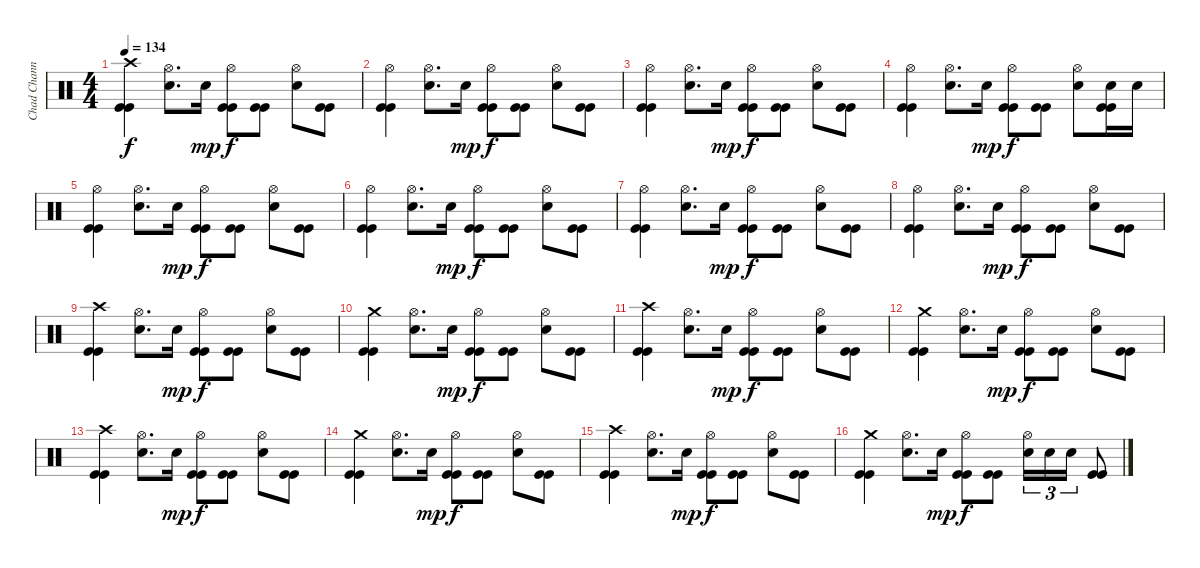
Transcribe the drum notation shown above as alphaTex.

\track ("Chad Channing" "Chad Chann") {instrument percussion}
\staff {score}
\articulation defaults
\ts (4 4)
\tempo 134
\clef neutral
\ks c
("Crash high (hit)" "Kick (hit)" "Kick (hit)").4{dy f} ("Hi-Hat (open)" "Electric Snare (hit)").8{d} "Electric Snare (hit)".16{dy mp} ("Hi-Hat (open)" "Kick (hit)" "Kick (hit)").8{dy f} ("Kick (hit)" "Kick (hit)").8 ("Hi-Hat (open)" "Electric Snare (hit)").8 ("Kick (hit)" "Kick (hit)").8 |
("Hi-Hat (open)" "Kick (hit)" "Kick (hit)").4 ("Hi-Hat (open)" "Electric Snare (hit)").8{d} "Electric Snare (hit)".16{dy mp} ("Hi-Hat (open)" "Kick (hit)" "Kick (hit)").8{dy f} ("Kick (hit)" "Kick (hit)").8 ("Hi-Hat (open)" "Electric Snare (hit)").8 ("Kick (hit)" "Kick (hit)").8 |
("Hi-Hat (open)" "Kick (hit)" "Kick (hit)").4 ("Hi-Hat (open)" "Electric Snare (hit)").8{d} "Electric Snare (hit)".16{dy mp} ("Hi-Hat (open)" "Kick (hit)" "Kick (hit)").8{dy f} ("Kick (hit)" "Kick (hit)").8 ("Hi-Hat (open)" "Electric Snare (hit)").8 ("Kick (hit)" "Kick (hit)").8 |
("Hi-Hat (open)" "Kick (hit)" "Kick (hit)").4 ("Hi-Hat (open)" "Electric Snare (hit)").8{d} "Electric Snare (hit)".16{dy mp} ("Hi-Hat (open)" "Kick (hit)" "Kick (hit)").8{dy f} ("Kick (hit)" "Kick (hit)").8 ("Hi-Hat (open)" "Electric Snare (hit)").8 ("Electric Snare (hit)" "Kick (hit)" "Kick (hit)").16 "Electric Snare (hit)".16 |
("Hi-Hat (open)" "Kick (hit)" "Kick (hit)").4 ("Hi-Hat (open)" "Electric Snare (hit)").8{d} "Electric Snare (hit)".16{dy mp} ("Hi-Hat (open)" "Kick (hit)" "Kick (hit)").8{dy f} ("Kick (hit)" "Kick (hit)").8 ("Hi-Hat (open)" "Electric Snare (hit)").8 ("Kick (hit)" "Kick (hit)").8 |
("Hi-Hat (open)" "Kick (hit)" "Kick (hit)").4 ("Hi-Hat (open)" "Electric Snare (hit)").8{d} "Electric Snare (hit)".16{dy mp} ("Hi-Hat (open)" "Kick (hit)" "Kick (hit)").8{dy f} ("Kick (hit)" "Kick (hit)").8 ("Hi-Hat (open)" "Electric Snare (hit)").8 ("Kick (hit)" "Kick (hit)").8 |
("Hi-Hat (open)" "Kick (hit)" "Kick (hit)").4 ("Hi-Hat (open)" "Electric Snare (hit)").8{d} "Electric Snare (hit)".16{dy mp} ("Hi-Hat (open)" "Kick (hit)" "Kick (hit)").8{dy f} ("Kick (hit)" "Kick (hit)").8 ("Hi-Hat (open)" "Electric Snare (hit)").8 ("Kick (hit)" "Kick (hit)").8 |
("Hi-Hat (open)" "Kick (hit)" "Kick (hit)").4 ("Hi-Hat (open)" "Electric Snare (hit)").8{d} "Electric Snare (hit)".16{dy mp} ("Hi-Hat (open)" "Kick (hit)" "Kick (hit)").8{dy f} ("Kick (hit)" "Kick (hit)").8 ("Hi-Hat (open)" "Electric Snare (hit)").8 ("Kick (hit)" "Kick (hit)").8 |
("Crash high (hit)" "Kick (hit)" "Kick (hit)").4 ("Hi-Hat (open)" "Electric Snare (hit)").8{d} "Electric Snare (hit)".16{dy mp} ("Hi-Hat (open)" "Kick (hit)" "Kick (hit)").8{dy f} ("Kick (hit)" "Kick (hit)").8 ("Hi-Hat (open)" "Electric Snare (hit)").8 ("Kick (hit)" "Kick (hit)").8 |
("Crash medium (hit)" "Kick (hit)" "Kick (hit)").4 ("Hi-Hat (open)" "Electric Snare (hit)").8{d} "Electric Snare (hit)".16{dy mp} ("Hi-Hat (open)" "Kick (hit)" "Kick (hit)").8{dy f} ("Kick (hit)" "Kick (hit)").8 ("Hi-Hat (open)" "Electric Snare (hit)").8 ("Kick (hit)" "Kick (hit)").8 |
("Crash high (hit)" "Kick (hit)" "Kick (hit)").4 ("Hi-Hat (open)" "Electric Snare (hit)").8{d} "Electric Snare (hit)".16{dy mp} ("Hi-Hat (open)" "Kick (hit)" "Kick (hit)").8{dy f} ("Kick (hit)" "Kick (hit)").8 ("Hi-Hat (open)" "Electric Snare (hit)").8 ("Kick (hit)" "Kick (hit)").8 |
("Crash medium (hit)" "Kick (hit)" "Kick (hit)").4 ("Hi-Hat (open)" "Electric Snare (hit)").8{d} "Electric Snare (hit)".16{dy mp} ("Hi-Hat (open)" "Kick (hit)" "Kick (hit)").8{dy f} ("Kick (hit)" "Kick (hit)").8 ("Hi-Hat (open)" "Electric Snare (hit)").8 ("Kick (hit)" "Kick (hit)").8 |
("Crash high (hit)" "Kick (hit)" "Kick (hit)").4 ("Hi-Hat (open)" "Electric Snare (hit)").8{d} "Electric Snare (hit)".16{dy mp} ("Hi-Hat (open)" "Kick (hit)" "Kick (hit)").8{dy f} ("Kick (hit)" "Kick (hit)").8 ("Hi-Hat (open)" "Electric Snare (hit)").8 ("Kick (hit)" "Kick (hit)").8 |
("Crash medium (hit)" "Kick (hit)" "Kick (hit)").4 ("Hi-Hat (open)" "Electric Snare (hit)").8{d} "Electric Snare (hit)".16{dy mp} ("Hi-Hat (open)" "Kick (hit)" "Kick (hit)").8{dy f} ("Kick (hit)" "Kick (hit)").8 ("Hi-Hat (open)" "Electric Snare (hit)").8 ("Kick (hit)" "Kick (hit)").8 |
("Crash high (hit)" "Kick (hit)" "Kick (hit)").4 ("Hi-Hat (open)" "Electric Snare (hit)").8{d} "Electric Snare (hit)".16{dy mp} ("Hi-Hat (open)" "Kick (hit)" "Kick (hit)").8{dy f} ("Kick (hit)" "Kick (hit)").8 ("Hi-Hat (open)" "Electric Snare (hit)").8 ("Kick (hit)" "Kick (hit)").8 |
("Crash medium (hit)" "Kick (hit)" "Kick (hit)").4 ("Hi-Hat (open)" "Electric Snare (hit)").8{d} "Electric Snare (hit)".16{dy mp} ("Hi-Hat (open)" "Kick (hit)" "Kick (hit)").8{dy f} ("Kick (hit)" "Kick (hit)").8 ("Hi-Hat (open)" "Electric Snare (hit)").16{tu (3 2)} "Electric Snare (hit)".16{tu (3 2)} "Electric Snare (hit)".16{tu (3 2)} ("Kick (hit)" "Kick (hit)").8
